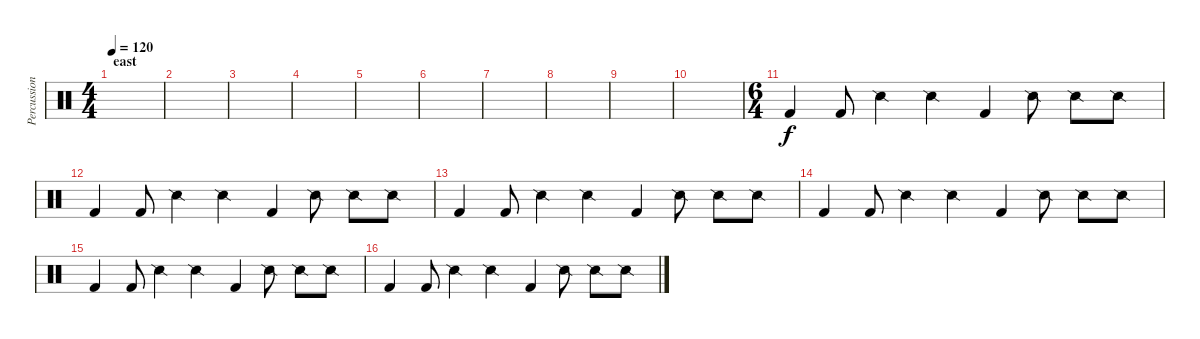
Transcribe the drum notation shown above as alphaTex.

\track ("Percussions" "Percussion") {instrument percussion}
\staff {score}
\articulation defaults
\ts (4 4)
\section ("" "east")
\tempo 120
\clef neutral
\ks c
|
|
|
|
|
|
|
|
|
|
\ts (6 4)
"Kick (hit) 2".4 "Kick (hit) 2".8 "Snare (side stick) 2".4 "Snare (side stick) 2".4 "Kick (hit) 2".4 "Snare (side stick) 2".8 "Snare (side stick) 2".8 "Snare (side stick) 2".8 |
"Kick (hit) 2".4 "Kick (hit) 2".8 "Snare (side stick) 2".4 "Snare (side stick) 2".4 "Kick (hit) 2".4 "Snare (side stick) 2".8 "Snare (side stick) 2".8 "Snare (side stick) 2".8 |
"Kick (hit) 2".4 "Kick (hit) 2".8 "Snare (side stick) 2".4 "Snare (side stick) 2".4 "Kick (hit) 2".4 "Snare (side stick) 2".8 "Snare (side stick) 2".8 "Snare (side stick) 2".8 |
"Kick (hit) 2".4 "Kick (hit) 2".8 "Snare (side stick) 2".4 "Snare (side stick) 2".4 "Kick (hit) 2".4 "Snare (side stick) 2".8 "Snare (side stick) 2".8 "Snare (side stick) 2".8 |
"Kick (hit) 2".4 "Kick (hit) 2".8 "Snare (side stick) 2".4 "Snare (side stick) 2".4 "Kick (hit) 2".4 "Snare (side stick) 2".8 "Snare (side stick) 2".8 "Snare (side stick) 2".8 |
"Kick (hit) 2".4 "Kick (hit) 2".8 "Snare (side stick) 2".4 "Snare (side stick) 2".4 "Kick (hit) 2".4 "Snare (side stick) 2".8 "Snare (side stick) 2".8 "Snare (side stick) 2".8
